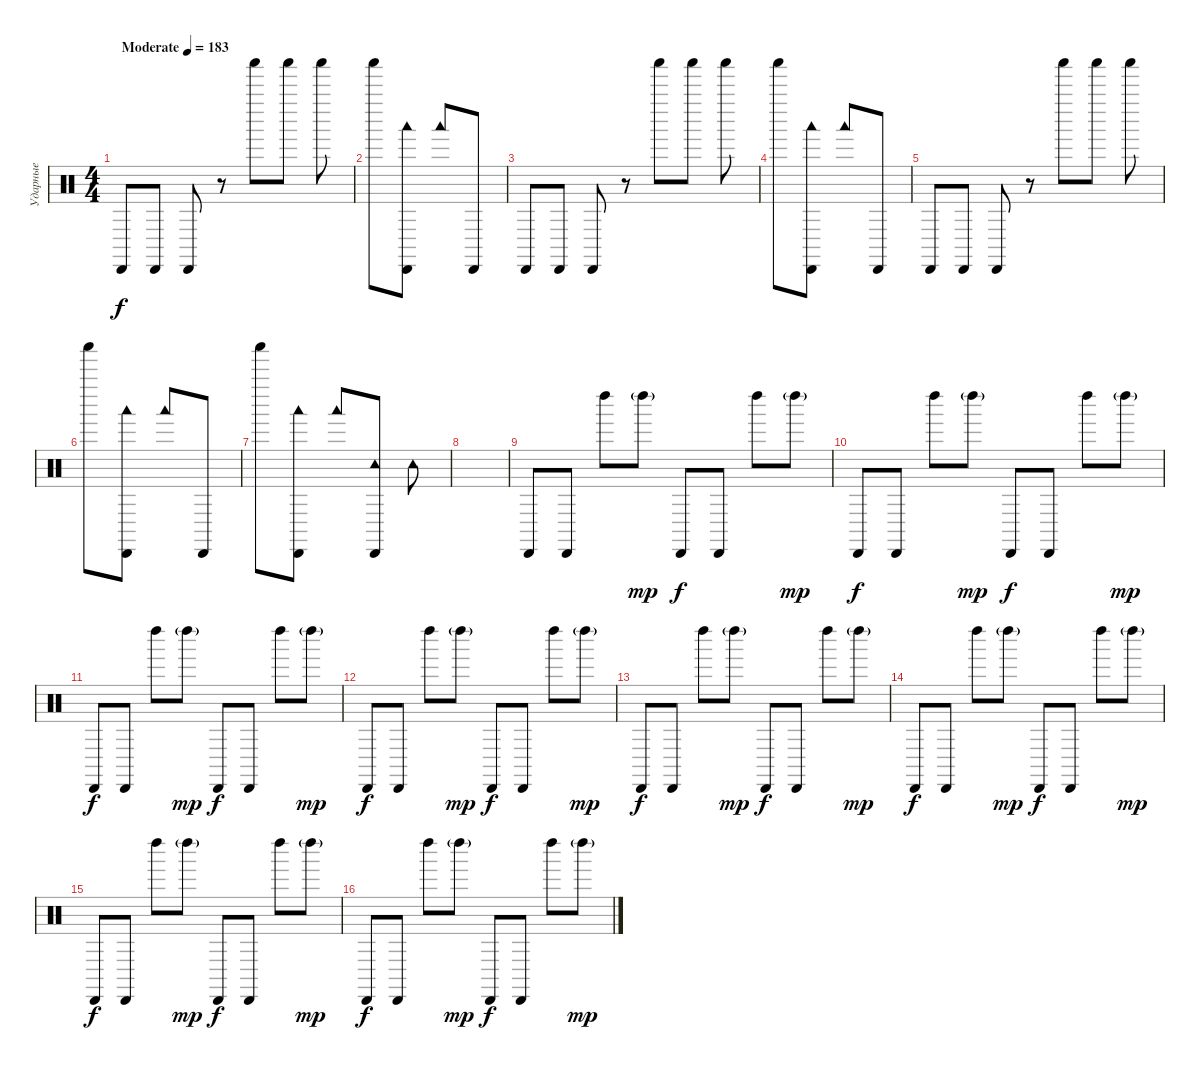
\track ("Ударные" "Ударные") {instrument percussion}
\staff {score}
\articulation defaults
\ts (4 4)
\tempo (183 "Moderate")
\clef neutral
\ks c "Cabasa (hit)".8{dy f} "Cabasa (hit)".8 "Cabasa (hit)".8
r.8 "Shaker (hit)".8 "Shaker (hit)".8 "Shaker (hit)".8 |
"Shaker (hit)".8 ("Cabasa (hit)" "Woodblock low (hit)").8 "Woodblock low (hit)".8 "Cabasa (hit)".8 |
"Cabasa (hit)".8 "Cabasa (hit)".8 "Cabasa (hit)".8 r.8 "Shaker (hit)".8 "Shaker (hit)".8 "Shaker (hit)".8 |
"Shaker (hit)".8 ("Cabasa (hit)" "Woodblock low (hit)").8 "Woodblock low (hit)".8 "Cabasa (hit)".8 |
"Cabasa (hit)".8 "Cabasa (hit)".8 "Cabasa (hit)".8 r.8 "Shaker (hit)".8 "Shaker (hit)".8 "Shaker (hit)".8 |
"Shaker (hit)".8 ("Cabasa (hit)" "Woodblock low (hit)").8 "Woodblock low (hit)".8 "Cabasa (hit)".8 |
"Shaker (hit)".8 ("Cabasa (hit)" "Woodblock low (hit)").8 "Woodblock low (hit)".8 ("Cabasa (hit)" "Tambourine (hit)").8 "Tambourine (hit)".8 |
|
"Cabasa (hit)".8 "Cabasa (hit)".8 "Left Maraca (hit)".8 "Left Maraca (hit)"{g}.8{dy mp} "Cabasa (hit)".8{dy f} "Cabasa (hit)".8 "Left Maraca (hit)".8 "Left Maraca (hit)"{g}.8{dy mp} |
"Cabasa (hit)".8{dy f} "Cabasa (hit)".8 "Left Maraca (hit)".8 "Left Maraca (hit)"{g}.8{dy mp} "Cabasa (hit)".8{dy f} "Cabasa (hit)".8 "Left Maraca (hit)".8 "Left Maraca (hit)"{g}.8{dy mp} |
"Cabasa (hit)".8{dy f} "Cabasa (hit)".8 "Left Maraca (hit)".8 "Left Maraca (hit)"{g}.8{dy mp} "Cabasa (hit)".8{dy f} "Cabasa (hit)".8 "Left Maraca (hit)".8 "Left Maraca (hit)"{g}.8{dy mp} |
"Cabasa (hit)".8{dy f} "Cabasa (hit)".8 "Left Maraca (hit)".8 "Left Maraca (hit)"{g}.8{dy mp} "Cabasa (hit)".8{dy f} "Cabasa (hit)".8 "Left Maraca (hit)".8 "Left Maraca (hit)"{g}.8{dy mp} |
"Cabasa (hit)".8{dy f} "Cabasa (hit)".8 "Left Maraca (hit)".8 "Left Maraca (hit)"{g}.8{dy mp} "Cabasa (hit)".8{dy f} "Cabasa (hit)".8 "Left Maraca (hit)".8 "Left Maraca (hit)"{g}.8{dy mp} |
"Cabasa (hit)".8{dy f} "Cabasa (hit)".8 "Left Maraca (hit)".8 "Left Maraca (hit)"{g}.8{dy mp} "Cabasa (hit)".8{dy f} "Cabasa (hit)".8 "Left Maraca (hit)".8 "Left Maraca (hit)"{g}.8{dy mp} |
"Cabasa (hit)".8{dy f} "Cabasa (hit)".8 "Left Maraca (hit)".8 "Left Maraca (hit)"{g}.8{dy mp} "Cabasa (hit)".8{dy f} "Cabasa (hit)".8 "Left Maraca (hit)".8 "Left Maraca (hit)"{g}.8{dy mp} |
"Cabasa (hit)".8{dy f} "Cabasa (hit)".8 "Left Maraca (hit)".8 "Left Maraca (hit)"{g}.8{dy mp} "Cabasa (hit)".8{dy f} "Cabasa (hit)".8 "Left Maraca (hit)".8 "Left Maraca (hit)"{g}.8{dy mp}
